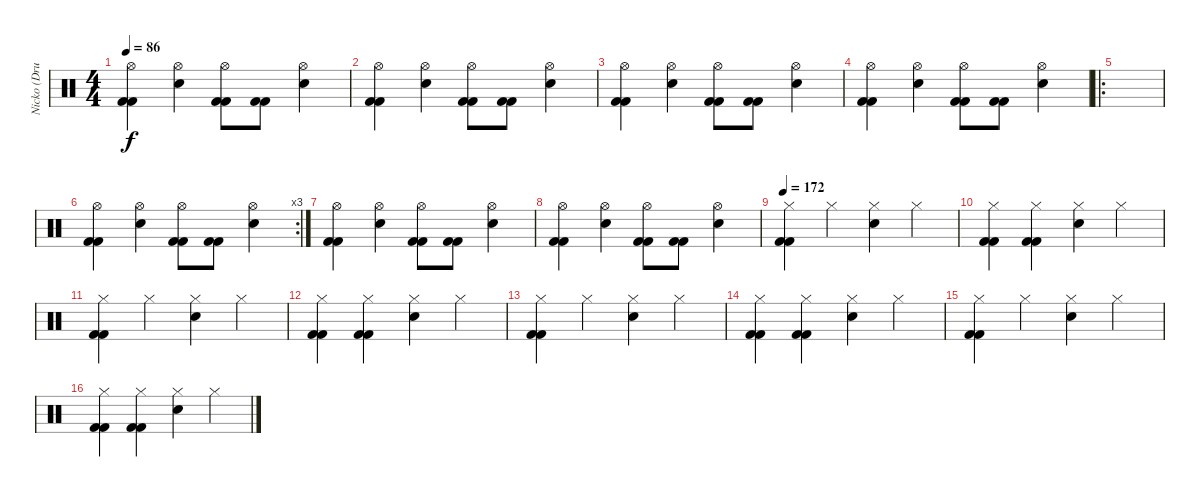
\track ("Nicko (Drums)" "Nicko (Dru") {instrument percussion}
\staff {score}
\articulation defaults
\ts (4 4)
\tempo 86
\clef neutral
\ks c
("Hi-Hat (open)" "Kick (hit) 2" "Kick (hit) 2").4{dy f} ("Hi-Hat (open)" "Snare (hit) 2").4 ("Hi-Hat (open)" "Kick (hit) 2" "Kick (hit) 2").8 ("Kick (hit) 2" "Kick (hit) 2").8 ("Hi-Hat (open)" "Snare (hit) 2").4 |
("Hi-Hat (open)" "Kick (hit) 2" "Kick (hit) 2").4 ("Hi-Hat (open)" "Snare (hit) 2").4 ("Hi-Hat (open)" "Kick (hit) 2" "Kick (hit) 2").8 ("Kick (hit) 2" "Kick (hit) 2").8 ("Hi-Hat (open)" "Snare (hit) 2").4 |
("Hi-Hat (open)" "Kick (hit) 2" "Kick (hit) 2").4 ("Hi-Hat (open)" "Snare (hit) 2").4 ("Hi-Hat (open)" "Kick (hit) 2" "Kick (hit) 2").8 ("Kick (hit) 2" "Kick (hit) 2").8 ("Hi-Hat (open)" "Snare (hit) 2").4 |
("Hi-Hat (open)" "Kick (hit) 2" "Kick (hit) 2").4 ("Hi-Hat (open)" "Snare (hit) 2").4 ("Hi-Hat (open)" "Kick (hit) 2" "Kick (hit) 2").8 ("Kick (hit) 2" "Kick (hit) 2").8 ("Hi-Hat (open)" "Snare (hit) 2").4 |
\ro
|
\rc 3
("Hi-Hat (open)" "Kick (hit) 2" "Kick (hit) 2").4 ("Hi-Hat (open)" "Snare (hit) 2").4 ("Hi-Hat (open)" "Kick (hit) 2" "Kick (hit) 2").8 ("Kick (hit) 2" "Kick (hit) 2").8 ("Hi-Hat (open)" "Snare (hit) 2").4 |
("Hi-Hat (open)" "Kick (hit) 2" "Kick (hit) 2").4 ("Hi-Hat (open)" "Snare (hit) 2").4 ("Hi-Hat (open)" "Kick (hit) 2" "Kick (hit) 2").8 ("Kick (hit) 2" "Kick (hit) 2").8 ("Hi-Hat (open)" "Snare (hit) 2").4 |
("Hi-Hat (open)" "Kick (hit) 2" "Kick (hit) 2").4 ("Hi-Hat (open)" "Snare (hit) 2").4 ("Hi-Hat (open)" "Kick (hit) 2" "Kick (hit) 2").8 ("Kick (hit) 2" "Kick (hit) 2").8 ("Hi-Hat (open)" "Snare (hit) 2").4 |
\tempo 172
("Hi-Hat (closed)" "Kick (hit) 2" "Kick (hit) 2").4 "Hi-Hat (closed)".4 ("Hi-Hat (closed)" "Snare (hit) 2").4 "Hi-Hat (closed)".4 |
("Hi-Hat (closed)" "Kick (hit) 2" "Kick (hit) 2").4 ("Hi-Hat (closed)" "Kick (hit) 2" "Kick (hit) 2").4 ("Hi-Hat (closed)" "Snare (hit) 2").4 "Hi-Hat (closed)".4 |
("Hi-Hat (closed)" "Kick (hit) 2" "Kick (hit) 2").4 "Hi-Hat (closed)".4 ("Hi-Hat (closed)" "Snare (hit) 2").4 "Hi-Hat (closed)".4 |
("Hi-Hat (closed)" "Kick (hit) 2" "Kick (hit) 2").4 ("Hi-Hat (closed)" "Kick (hit) 2" "Kick (hit) 2").4 ("Hi-Hat (closed)" "Snare (hit) 2").4 "Hi-Hat (closed)".4 |
("Hi-Hat (closed)" "Kick (hit) 2" "Kick (hit) 2").4 "Hi-Hat (closed)".4 ("Hi-Hat (closed)" "Snare (hit) 2").4 "Hi-Hat (closed)".4 |
("Hi-Hat (closed)" "Kick (hit) 2" "Kick (hit) 2").4 ("Hi-Hat (closed)" "Kick (hit) 2" "Kick (hit) 2").4 ("Hi-Hat (closed)" "Snare (hit) 2").4 "Hi-Hat (closed)".4 |
("Hi-Hat (closed)" "Kick (hit) 2" "Kick (hit) 2").4 "Hi-Hat (closed)".4 ("Hi-Hat (closed)" "Snare (hit) 2").4 "Hi-Hat (closed)".4 |
("Hi-Hat (closed)" "Kick (hit) 2" "Kick (hit) 2").4 ("Hi-Hat (closed)" "Kick (hit) 2" "Kick (hit) 2").4 ("Hi-Hat (closed)" "Snare (hit) 2").4 "Hi-Hat (closed)".4
